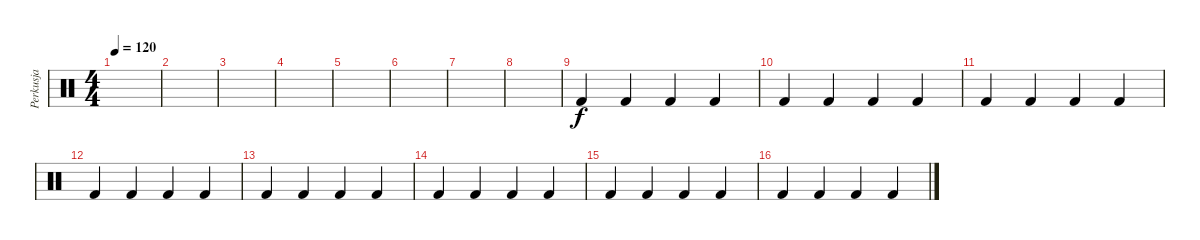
\track ("Perkusja" "Perkusja") {instrument percussion}
\staff {score}
\articulation defaults
\ts (4 4)
\tempo 120
\clef neutral
\ks c
|
|
|
|
|
|
|
|
"Kick (hit) 2".4 "Kick (hit) 2".4 "Kick (hit) 2".4 "Kick (hit) 2".4 |
"Kick (hit) 2".4 "Kick (hit) 2".4 "Kick (hit) 2".4 "Kick (hit) 2".4 |
"Kick (hit) 2".4 "Kick (hit) 2".4 "Kick (hit) 2".4 "Kick (hit) 2".4 |
"Kick (hit) 2".4 "Kick (hit) 2".4 "Kick (hit) 2".4 "Kick (hit) 2".4 |
"Kick (hit) 2".4 "Kick (hit) 2".4 "Kick (hit) 2".4 "Kick (hit) 2".4 |
"Kick (hit) 2".4 "Kick (hit) 2".4 "Kick (hit) 2".4 "Kick (hit) 2".4 |
"Kick (hit) 2".4 "Kick (hit) 2".4 "Kick (hit) 2".4 "Kick (hit) 2".4 |
"Kick (hit) 2".4 "Kick (hit) 2".4 "Kick (hit) 2".4 "Kick (hit) 2".4
